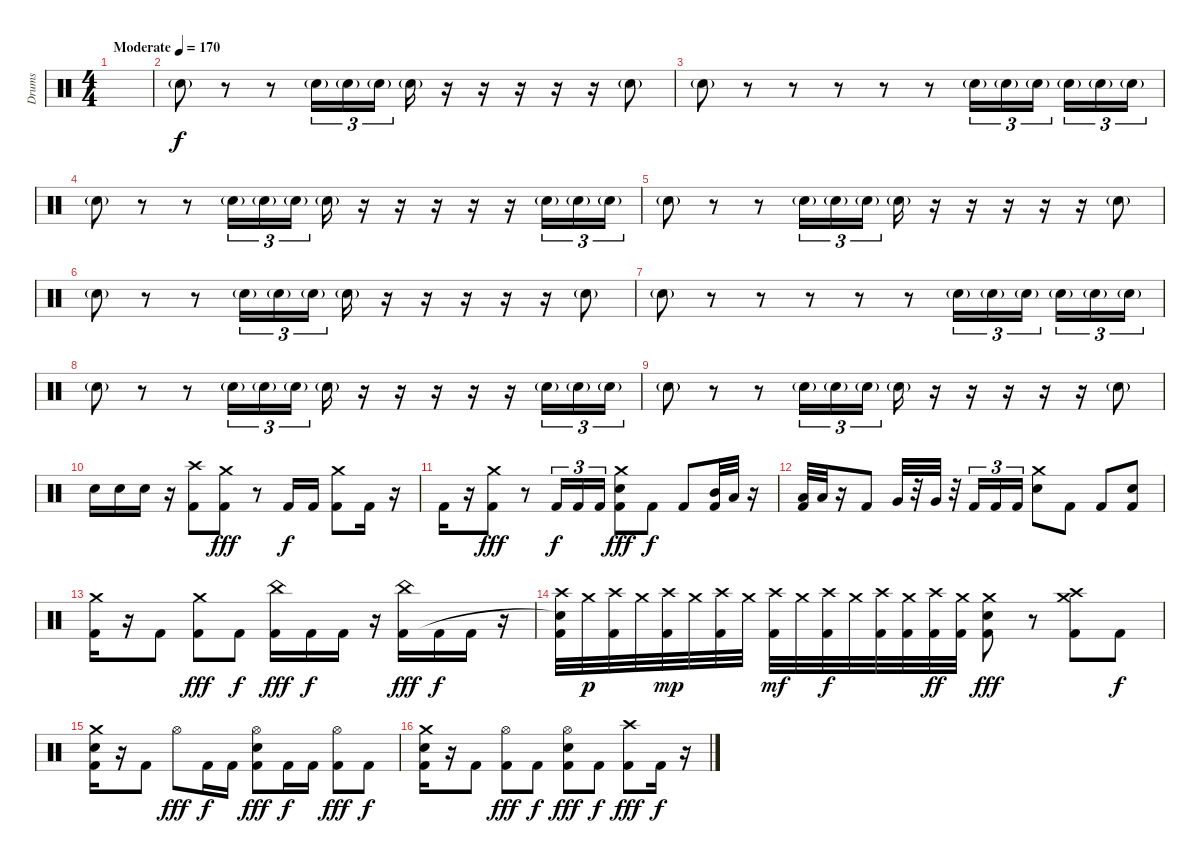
\track ("Drums" "Drums") {instrument percussion}
\staff {score}
\articulation defaults
\ts (4 4)
\tempo (170 "Moderate")
\clef neutral
\ks c
|
"Electric Snare (hit)"{g}.8 r.8 r.8 "Electric Snare (hit)"{g}.16{tu (3 2)} "Electric Snare (hit)"{g}.16{tu (3 2)} "Electric Snare (hit)"{g}.16{tu (3 2)} "Electric Snare (hit)"{g}.16 r.16 r.16 r.16 r.16 r.16 "Electric Snare (hit)"{g}.8 |
"Electric Snare (hit)"{g}.8 r.8 r.8 r.8 r.8 r.8 "Electric Snare (hit)"{g}.16{tu (3 2)} "Electric Snare (hit)"{g}.16{tu (3 2)} "Electric Snare (hit)"{g}.16{tu (3 2) beam splitsecondary} "Electric Snare (hit)"{g}.16{tu (3 2)} "Electric Snare (hit)"{g}.16{tu (3 2)} "Electric Snare (hit)"{g}.16{tu (3 2)} |
"Electric Snare (hit)"{g}.8 r.8 r.8 "Electric Snare (hit)"{g}.16{tu (3 2)} "Electric Snare (hit)"{g}.16{tu (3 2)} "Electric Snare (hit)"{g}.16{tu (3 2)} "Electric Snare (hit)"{g}.16 r.16 r.16 r.16 r.16 r.16 "Electric Snare (hit)"{g}.16{tu (3 2)} "Electric Snare (hit)"{g}.16{tu (3 2)} "Electric Snare (hit)"{g}.16{tu (3 2)} |
"Electric Snare (hit)"{g}.8 r.8 r.8 "Electric Snare (hit)"{g}.16{tu (3 2)} "Electric Snare (hit)"{g}.16{tu (3 2)} "Electric Snare (hit)"{g}.16{tu (3 2)} "Electric Snare (hit)"{g}.16 r.16 r.16 r.16 r.16 r.16 "Electric Snare (hit)"{g}.8 |
"Electric Snare (hit)"{g}.8 r.8 r.8 "Electric Snare (hit)"{g}.16{tu (3 2)} "Electric Snare (hit)"{g}.16{tu (3 2)} "Electric Snare (hit)"{g}.16{tu (3 2)} "Electric Snare (hit)"{g}.16 r.16 r.16 r.16 r.16 r.16 "Electric Snare (hit)"{g}.8 |
"Electric Snare (hit)"{g}.8 r.8 r.8 r.8 r.8 r.8 "Electric Snare (hit)"{g}.16{tu (3 2)} "Electric Snare (hit)"{g}.16{tu (3 2)} "Electric Snare (hit)"{g}.16{tu (3 2) beam splitsecondary} "Electric Snare (hit)"{g}.16{tu (3 2)} "Electric Snare (hit)"{g}.16{tu (3 2)} "Electric Snare (hit)"{g}.16{tu (3 2)} |
"Electric Snare (hit)"{g}.8 r.8 r.8 "Electric Snare (hit)"{g}.16{tu (3 2)} "Electric Snare (hit)"{g}.16{tu (3 2)} "Electric Snare (hit)"{g}.16{tu (3 2)} "Electric Snare (hit)"{g}.16 r.16 r.16 r.16 r.16 r.16 "Electric Snare (hit)"{g}.16{tu (3 2)} "Electric Snare (hit)"{g}.16{tu (3 2)} "Electric Snare (hit)"{g}.16{tu (3 2)} |
"Electric Snare (hit)"{g}.8 r.8 r.8 "Electric Snare (hit)"{g}.16{tu (3 2)} "Electric Snare (hit)"{g}.16{tu (3 2)} "Electric Snare (hit)"{g}.16{tu (3 2)} "Electric Snare (hit)"{g}.16 r.16 r.16 r.16 r.16 r.16 "Electric Snare (hit)"{g}.8 |
"Electric Snare (hit)".16{dy f} "Electric Snare (hit)".16 "Electric Snare (hit)".16 r.16 ("Crash high (hit)" "Kick (hit) 2").8 ("Crash medium (hit)" "Kick (hit) 2").8{dy fff} r.8 "Kick (hit) 2".16{dy f} "Kick (hit) 2".16 ("Crash medium (hit)" "Kick (hit) 2").8 "Kick (hit) 2".16 r.16 |
"Kick (hit) 2".16 r.16 ("Crash medium (hit)" "Kick (hit) 2").8{dy fff} r.8 "Kick (hit) 2".16{tu (3 2) dy f} "Kick (hit) 2".16{tu (3 2)} "Kick (hit) 2".16{tu (3 2)} ("Crash medium (hit)" "Electric Snare (hit)" "Kick (hit) 2").8{dy fff} "Kick (hit) 2".8{dy f} "Kick (hit) 2".8 ("Mid Tom (hit)" "Kick (hit) 2").32 "Low Tom (hit)".32 r.16 |
("Low Tom (hit)" "Kick (hit) 2").32 "Low Tom (hit)".32 r.16 "Kick (hit) 2".8 "Very Low Tom (hit)".32 r.32 "Very Low Tom (hit)".32 r.32 "Kick (hit) 2".16{tu (3 2)} "Kick (hit) 2".16{tu (3 2)} "Kick (hit) 2".16{tu (3 2)} ("Crash medium (hit)" "Electric Snare (hit)").8 "Kick (hit) 2".8 "Kick (hit) 2".8 ("Electric Snare (hit)" "Kick (hit) 2").8 |
("Crash medium (hit)" "Kick (hit) 2").16 r.16 "Kick (hit) 2".8 ("Crash medium (hit)" "Kick (hit) 2").8{dy fff} "Kick (hit) 2".8{dy f} ("China (hit)" "Kick (hit) 2").16{dy fff} "Kick (hit) 2".16{dy f} "Kick (hit) 2".16 r.16 ("China (hit)" "Kick (hit) 2").16{dy fff} "Kick (hit) 2".16{dy f} "Kick (hit) 2".16 r.16 |
("Crash high (hit)" "Snare (hit)"{t} "Kick (hit) 2").32 "Crash medium (hit)".32{dy p} ("Crash high (hit)" "Kick (hit) 2").32 "Crash medium (hit)".32 ("Crash high (hit)" "Kick (hit) 2").32{dy mp} "Crash medium (hit)".32 ("Crash high (hit)" "Kick (hit) 2").32 "Crash medium (hit)".32 ("Crash high (hit)" "Kick (hit) 2").32{dy mf} "Crash medium (hit)".32 ("Crash high (hit)" "Kick (hit) 2").32{dy f} "Crash medium (hit)".32 ("Crash high (hit)" "Kick (hit) 2").32 ("Crash medium (hit)" "Kick (hit) 2").32 ("Crash high (hit)" "Kick (hit) 2").32{dy ff} ("Crash medium (hit)" "Kick (hit) 2").32 ("Crash medium (hit)" "Electric Snare (hit)" "Kick (hit) 2").8{dy fff} r.8 ("Crash medium (hit)" "Crash high (hit)" "Kick (hit) 2").8 "Kick (hit) 2".8{dy f} |
("Crash medium (hit)" "Electric Snare (hit)" "Kick (hit) 2").16 r.16 "Kick (hit) 2".8 "Hi-Hat (open)".8{dy fff} "Kick (hit) 2".16{dy f} "Kick (hit) 2".16 ("Hi-Hat (open)" "Electric Snare (hit)" "Kick (hit) 2").8{dy fff} "Kick (hit) 2".16{dy f} "Kick (hit) 2".16 ("Hi-Hat (open)" "Kick (hit) 2").8{dy fff} "Kick (hit) 2".8{dy f} |
("Crash medium (hit)" "Electric Snare (hit)" "Kick (hit) 2").16 r.16 "Kick (hit) 2".8 ("Hi-Hat (open)" "Kick (hit) 2").8{dy fff} "Kick (hit) 2".8{dy f} ("Hi-Hat (open)" "Electric Snare (hit)" "Kick (hit) 2").8{dy fff} "Kick (hit) 2".8{dy f} ("Crash high (hit)" "Kick (hit) 2").8{dy fff} "Kick (hit) 2".16{dy f} r.16
